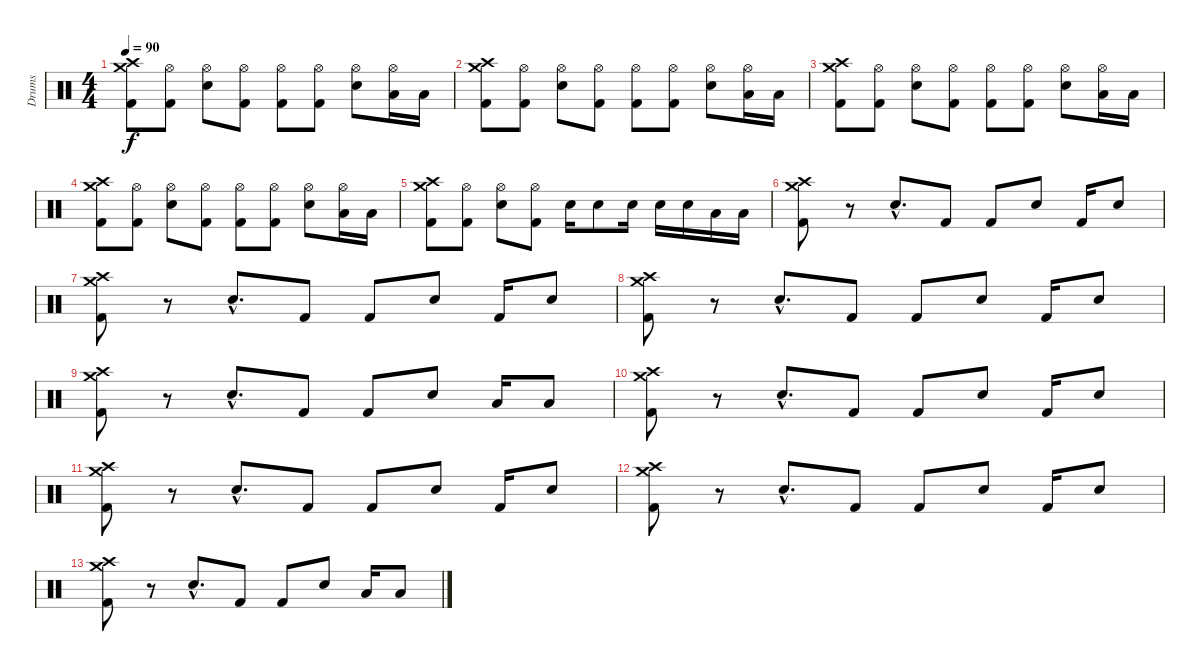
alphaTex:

\track ("Drums" "Drums") {instrument percussion}
\staff {score}
\articulation defaults
\ts (4 4)
\tempo 90
\clef neutral
\ks c
("Crash high (hit)" "Crash medium (hit)" "Kick (hit) 2").8{dy f} ("Hi-Hat (open)" "Kick (hit) 2").8 ("Hi-Hat (open)" "Snare (hit) 2").8 ("Hi-Hat (open)" "Kick (hit) 2").8 ("Hi-Hat (open)" "Kick (hit) 2").8 ("Hi-Hat (open)" "Kick (hit) 2").8 ("Hi-Hat (open)" "Snare (hit) 2").8 ("Hi-Hat (open)" "Low Tom (hit)").16 "Low Tom (hit)".16 |
("Crash high (hit)" "Crash medium (hit)" "Kick (hit) 2").8 ("Hi-Hat (open)" "Kick (hit) 2").8 ("Hi-Hat (open)" "Snare (hit) 2").8 ("Hi-Hat (open)" "Kick (hit) 2").8 ("Hi-Hat (open)" "Kick (hit) 2").8 ("Hi-Hat (open)" "Kick (hit) 2").8 ("Hi-Hat (open)" "Snare (hit) 2").8 ("Hi-Hat (open)" "Low Tom (hit)").16 "Low Tom (hit)".16 |
("Crash high (hit)" "Crash medium (hit)" "Kick (hit) 2").8 ("Hi-Hat (open)" "Kick (hit) 2").8 ("Hi-Hat (open)" "Snare (hit) 2").8 ("Hi-Hat (open)" "Kick (hit) 2").8 ("Hi-Hat (open)" "Kick (hit) 2").8 ("Hi-Hat (open)" "Kick (hit) 2").8 ("Hi-Hat (open)" "Snare (hit) 2").8 ("Hi-Hat (open)" "Low Tom (hit)").16 "Low Tom (hit)".16 |
("Crash high (hit)" "Crash medium (hit)" "Kick (hit) 2").8 ("Hi-Hat (open)" "Kick (hit) 2").8 ("Hi-Hat (open)" "Snare (hit) 2").8 ("Hi-Hat (open)" "Kick (hit) 2").8 ("Hi-Hat (open)" "Kick (hit) 2").8 ("Hi-Hat (open)" "Kick (hit) 2").8 ("Hi-Hat (open)" "Snare (hit) 2").8 ("Hi-Hat (open)" "Low Tom (hit)").16 "Low Tom (hit)".16 |
("Crash high (hit)" "Crash medium (hit)" "Kick (hit) 2").8 ("Hi-Hat (open)" "Kick (hit) 2").8 ("Hi-Hat (open)" "Snare (hit) 2").8 ("Hi-Hat (open)" "Kick (hit) 2").8 "Snare (hit) 2".16 "Snare (hit) 2".8 "Snare (hit) 2".16 "Snare (hit) 2".16 "Snare (hit) 2".16 "Low Tom (hit)".16 "Low Tom (hit)".16 |
("Crash high (hit)" "Crash medium (hit)" "Kick (hit) 2").8 r.8 "Snare (hit) 2"{hac}.8{d} "Kick (hit) 2".8 "Kick (hit) 2".8 "Snare (hit) 2".8 "Kick (hit) 2".16 "Snare (hit) 2".8 |
("Crash high (hit)" "Crash medium (hit)" "Kick (hit) 2").8 r.8 "Snare (hit) 2"{hac}.8{d} "Kick (hit) 2".8 "Kick (hit) 2".8 "Snare (hit) 2".8 "Kick (hit) 2".16 "Snare (hit) 2".8 |
("Crash high (hit)" "Crash medium (hit)" "Kick (hit) 2").8 r.8 "Snare (hit) 2"{hac}.8{d} "Kick (hit) 2".8 "Kick (hit) 2".8 "Snare (hit) 2".8 "Kick (hit) 2".16 "Snare (hit) 2".8 |
("Crash high (hit)" "Crash medium (hit)" "Kick (hit) 2").8 r.8 "Snare (hit) 2"{hac}.8{d} "Kick (hit) 2".8 "Kick (hit) 2".8 "Snare (hit) 2".8 "Low Tom (hit)".16 "Low Tom (hit)".8 |
("Crash high (hit)" "Crash medium (hit)" "Kick (hit) 2").8 r.8 "Snare (hit) 2"{hac}.8{d} "Kick (hit) 2".8 "Kick (hit) 2".8 "Snare (hit) 2".8 "Kick (hit) 2".16 "Snare (hit) 2".8 |
("Crash high (hit)" "Crash medium (hit)" "Kick (hit) 2").8 r.8 "Snare (hit) 2"{hac}.8{d} "Kick (hit) 2".8 "Kick (hit) 2".8 "Snare (hit) 2".8 "Kick (hit) 2".16 "Snare (hit) 2".8 |
("Crash high (hit)" "Crash medium (hit)" "Kick (hit) 2").8 r.8 "Snare (hit) 2"{hac}.8{d} "Kick (hit) 2".8 "Kick (hit) 2".8 "Snare (hit) 2".8 "Kick (hit) 2".16 "Snare (hit) 2".8 |
("Crash high (hit)" "Crash medium (hit)" "Kick (hit) 2").8 r.8 "Snare (hit) 2"{hac}.8{d} "Kick (hit) 2".8 "Kick (hit) 2".8 "Snare (hit) 2".8 "Low Tom (hit)".16 "Low Tom (hit)".8
